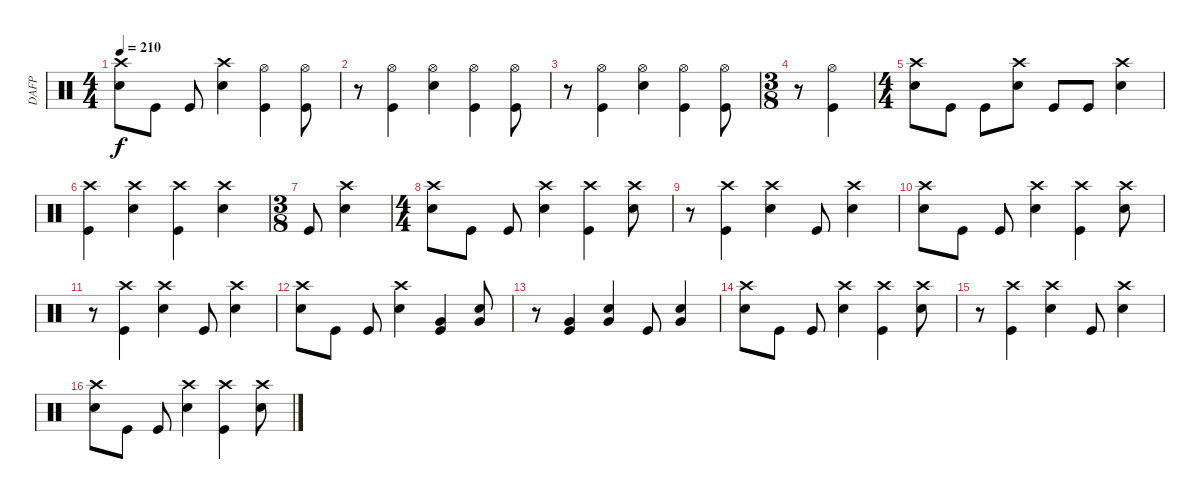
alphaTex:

\track ("DAFP" "DAFP") {instrument percussion}
\staff {score}
\articulation defaults
\ts (4 4)
\tempo 210
\clef neutral
\ks c
("Crash high (hit)" "Snare (hit) 2").8{dy f} "Kick (hit)".8 "Kick (hit)".8 ("Crash high (hit)" "Snare (hit) 2").4 ("Hi-Hat (open)" "Kick (hit)").4 ("Kick (hit)" "Hi-Hat (open)").8 |
r.8 ("Kick (hit)" "Hi-Hat (open)").4 ("Snare (hit) 2" "Hi-Hat (open)").4 ("Kick (hit)" "Hi-Hat (open)").4 ("Kick (hit)" "Hi-Hat (open)").8 |
r.8 ("Kick (hit)" "Hi-Hat (open)").4 ("Snare (hit) 2" "Hi-Hat (open)").4 ("Kick (hit)" "Hi-Hat (open)").4 ("Kick (hit)" "Hi-Hat (open)").8 |
\ts (3 8)
r.8 ("Kick (hit)" "Hi-Hat (open)").4 |
\ts (4 4)
("Crash high (hit)" "Snare (hit) 2").8 "Kick (hit)".8 "Kick (hit)".8 ("Crash high (hit)" "Snare (hit) 2").8 "Kick (hit)".8 "Kick (hit)".8 ("Snare (hit) 2" "Crash high (hit)").4 |
("Kick (hit)" "Crash high (hit)").4 ("Snare (hit) 2" "Crash high (hit)").4 ("Kick (hit)" "Crash high (hit)").4 ("Snare (hit) 2" "Crash high (hit)").4 |
\ts (3 8)
"Kick (hit)".8 ("Snare (hit) 2" "Crash high (hit)").4 |
\ts (4 4)
("Crash high (hit)" "Snare (hit) 2").8 "Kick (hit)".8 "Kick (hit)".8 ("Crash high (hit)" "Snare (hit) 2").4 ("Kick (hit)" "Crash high (hit)").4 ("Snare (hit) 2" "Crash high (hit)").8 |
r.8 ("Kick (hit)" "Crash high (hit)").4 ("Crash high (hit)" "Snare (hit) 2").4 "Kick (hit)".8 ("Snare (hit) 2" "Crash high (hit)").4 |
("Crash high (hit)" "Snare (hit) 2").8 "Kick (hit)".8 "Kick (hit)".8 ("Crash high (hit)" "Snare (hit) 2").4 ("Kick (hit)" "Crash high (hit)").4 ("Snare (hit) 2" "Crash high (hit)").8 |
r.8 ("Kick (hit)" "Crash high (hit)").4 ("Crash high (hit)" "Snare (hit) 2").4 "Kick (hit)".8 ("Snare (hit) 2" "Crash high (hit)").4 |
("Crash high (hit)" "Snare (hit) 2").8 "Kick (hit)".8 "Kick (hit)".8 ("Crash high (hit)" "Snare (hit) 2").4 ("Kick (hit)" "Very Low Tom (hit)").4 ("Snare (hit) 2" "Very Low Tom (hit)").8 |
r.8 ("Kick (hit)" "Very Low Tom (hit)").4 ("Very Low Tom (hit)" "Snare (hit) 2").4 "Kick (hit)".8 ("Snare (hit) 2" "Very Low Tom (hit)").4 |
("Crash high (hit)" "Snare (hit) 2").8 "Kick (hit)".8 "Kick (hit)".8 ("Crash high (hit)" "Snare (hit) 2").4 ("Kick (hit)" "Crash high (hit)").4 ("Snare (hit) 2" "Crash high (hit)").8 |
r.8 ("Kick (hit)" "Crash high (hit)").4 ("Crash high (hit)" "Snare (hit) 2").4 "Kick (hit)".8 ("Snare (hit) 2" "Crash high (hit)").4 |
("Crash high (hit)" "Snare (hit) 2").8 "Kick (hit)".8 "Kick (hit)".8 ("Crash high (hit)" "Snare (hit) 2").4 ("Kick (hit)" "Crash high (hit)").4 ("Snare (hit) 2" "Crash high (hit)").8
